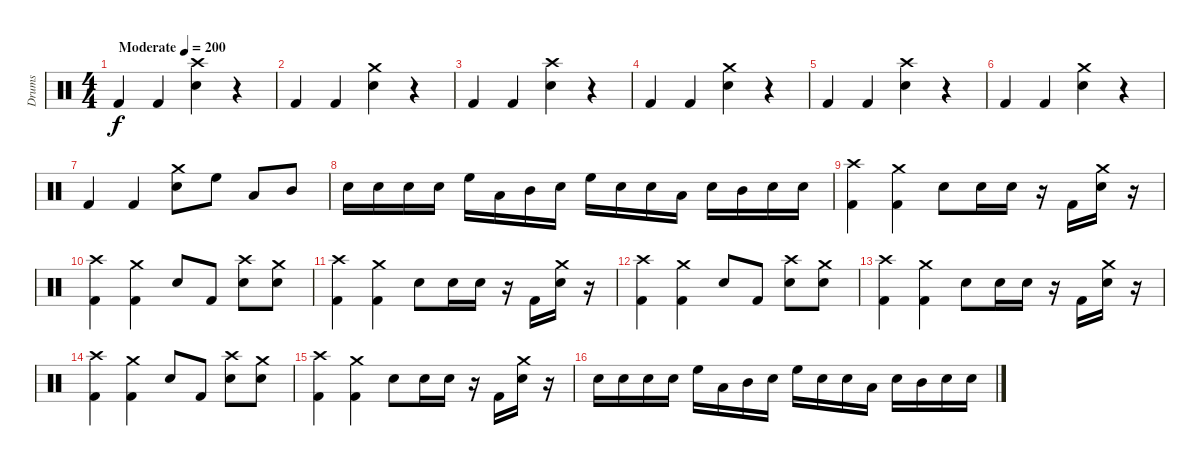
\track ("Drums" "Drums") {instrument percussion}
\staff {score}
\articulation defaults
\ts (4 4)
\tempo (200 "Moderate")
\clef neutral
\ks c "Kick (hit) 2".4{dy f} "Kick (hit) 2".4
("Electric Snare (hit)" "Crash high (hit)").4 r.4 |
"Kick (hit) 2".4 "Kick (hit) 2".4 ("Electric Snare (hit)" "Crash medium (hit)").4 r.4 |
"Kick (hit) 2".4 "Kick (hit) 2".4 ("Electric Snare (hit)" "Crash high (hit)").4 r.4 |
"Kick (hit) 2".4 "Kick (hit) 2".4 ("Electric Snare (hit)" "Crash medium (hit)").4 r.4 |
"Kick (hit) 2".4 "Kick (hit) 2".4 ("Electric Snare (hit)" "Crash high (hit)").4 r.4 |
"Kick (hit) 2".4 "Kick (hit) 2".4 ("Electric Snare (hit)" "Crash medium (hit)").4 r.4 |
"Kick (hit) 2".4 "Kick (hit) 2".4 ("Electric Snare (hit)" "Crash medium (hit)").8 "High Floor Tom (hit)".8 "Low Tom (hit)".8 "Mid Tom (hit)".8 |
"Electric Snare (hit)".16 "Electric Snare (hit)".16 "Electric Snare (hit)".16 "Electric Snare (hit)".16 "High Floor Tom (hit)".16 "Low Tom (hit)".16 "Mid Tom (hit)".16 "Electric Snare (hit)".16 "High Floor Tom (hit)".16 "Electric Snare (hit)".16 "Electric Snare (hit)".16 "Low Tom (hit)".16 "Electric Snare (hit)".16 "Mid Tom (hit)".16 "Electric Snare (hit)".16 "Electric Snare (hit)".16 |
("Crash high (hit)" "Kick (hit) 2").4 ("Crash medium (hit)" "Kick (hit) 2").4 "Electric Snare (hit)".8 "Electric Snare (hit)".16 "Electric Snare (hit)".16 r.16 "Kick (hit) 2".16 ("Electric Snare (hit)" "Crash medium (hit)").16 r.16 |
("Crash high (hit)" "Kick (hit) 2").4 ("Crash medium (hit)" "Kick (hit) 2").4 "Electric Snare (hit)".8 "Kick (hit) 2".8 ("Electric Snare (hit)" "Crash high (hit)").8 ("Electric Snare (hit)" "Crash medium (hit)").8 |
("Crash high (hit)" "Kick (hit) 2").4 ("Crash medium (hit)" "Kick (hit) 2").4 "Electric Snare (hit)".8 "Electric Snare (hit)".16 "Electric Snare (hit)".16 r.16 "Kick (hit) 2".16 ("Electric Snare (hit)" "Crash medium (hit)").16 r.16 |
("Crash high (hit)" "Kick (hit) 2").4 ("Crash medium (hit)" "Kick (hit) 2").4 "Electric Snare (hit)".8 "Kick (hit) 2".8 ("Electric Snare (hit)" "Crash high (hit)").8 ("Electric Snare (hit)" "Crash medium (hit)").8 |
("Crash high (hit)" "Kick (hit) 2").4 ("Crash medium (hit)" "Kick (hit) 2").4 "Electric Snare (hit)".8 "Electric Snare (hit)".16 "Electric Snare (hit)".16 r.16 "Kick (hit) 2".16 ("Electric Snare (hit)" "Crash medium (hit)").16 r.16 |
("Crash high (hit)" "Kick (hit) 2").4 ("Crash medium (hit)" "Kick (hit) 2").4 "Electric Snare (hit)".8 "Kick (hit) 2".8 ("Electric Snare (hit)" "Crash high (hit)").8 ("Electric Snare (hit)" "Crash medium (hit)").8 |
("Crash high (hit)" "Kick (hit) 2").4 ("Crash medium (hit)" "Kick (hit) 2").4 "Electric Snare (hit)".8 "Electric Snare (hit)".16 "Electric Snare (hit)".16 r.16 "Kick (hit) 2".16 ("Electric Snare (hit)" "Crash medium (hit)").16 r.16 |
"Electric Snare (hit)".16 "Electric Snare (hit)".16 "Electric Snare (hit)".16 "Electric Snare (hit)".16 "High Floor Tom (hit)".16 "Low Tom (hit)".16 "Mid Tom (hit)".16 "Electric Snare (hit)".16 "High Floor Tom (hit)".16 "Electric Snare (hit)".16 "Electric Snare (hit)".16 "Low Tom (hit)".16 "Electric Snare (hit)".16 "Mid Tom (hit)".16 "Electric Snare (hit)".16 "Electric Snare (hit)".16
